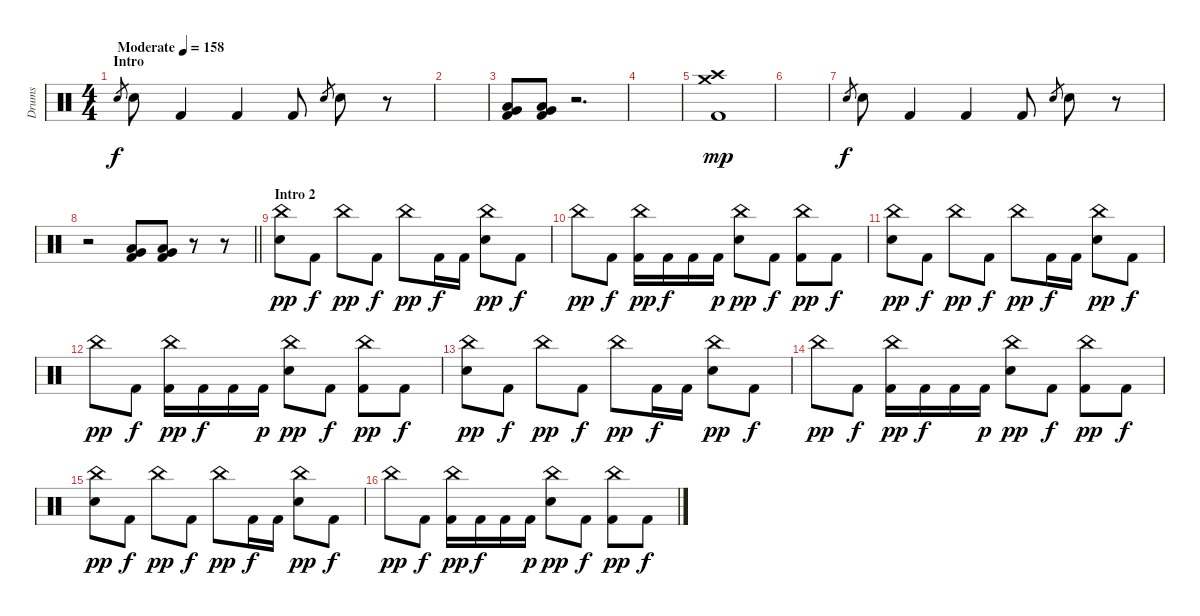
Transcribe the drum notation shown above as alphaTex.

\track ("Drums" "Drums") {instrument percussion}
\staff {score}
\articulation defaults
\ts (4 4)
\section ("" "Intro")
\tempo (158 "Moderate")
\clef neutral
\ks c "Snare (hit) 2".8{gr dy f} "Snare (hit) 2".8 "Kick (hit) 2".4 "Kick (hit) 2".4 "Kick (hit) 2".8 "Snare (hit) 2".8{gr} "Snare (hit) 2".8
r.8 |
|
("Very Low Tom (hit)" "Low Floor Tom (hit)" "Kick (hit) 2").8 ("Very Low Tom (hit)" "Low Floor Tom (hit)" "Kick (hit) 2").8 r.2{d} |
|
("Crash medium (hit)" "Crash high (hit)" "Kick (hit) 2").1{dy mp} |
|
"Snare (hit) 2".8{gr dy f} "Snare (hit) 2".8 "Kick (hit) 2".4 "Kick (hit) 2".4 "Kick (hit) 2".8 "Snare (hit) 2".8{gr} "Snare (hit) 2".8 r.8 |
\barLineRight lightlight
r.2 ("Very Low Tom (hit)" "Low Floor Tom (hit)" "Kick (hit) 2").8 ("Very Low Tom (hit)" "Low Floor Tom (hit)" "Kick (hit) 2").8 r.8 r.8 |
\section ("" "Intro 2")
("China (hit)" "Snare (hit) 2").8{dy pp} "Kick (hit) 2".8{dy f} "China (hit)".8{dy pp} "Kick (hit) 2".8{dy f} "China (hit)".8{dy pp} "Kick (hit) 2".16{dy f} "Kick (hit) 2".16 ("China (hit)" "Snare (hit) 2").8{dy pp} "Kick (hit) 2".8{dy f} |
"China (hit)".8{dy pp} "Kick (hit) 2".8{dy f} ("China (hit)" "Kick (hit) 2").16{dy pp} "Kick (hit) 2".16{dy f} "Kick (hit) 2".16 "Kick (hit) 2".16{dy p} ("China (hit)" "Snare (hit) 2").8{dy pp} "Kick (hit) 2".8{dy f} ("China (hit)" "Kick (hit) 2").8{dy pp} "Kick (hit) 2".8{dy f} |
("China (hit)" "Snare (hit) 2").8{dy pp} "Kick (hit) 2".8{dy f} "China (hit)".8{dy pp} "Kick (hit) 2".8{dy f} "China (hit)".8{dy pp} "Kick (hit) 2".16{dy f} "Kick (hit) 2".16 ("China (hit)" "Snare (hit) 2").8{dy pp} "Kick (hit) 2".8{dy f} |
"China (hit)".8{dy pp} "Kick (hit) 2".8{dy f} ("China (hit)" "Kick (hit) 2").16{dy pp} "Kick (hit) 2".16{dy f} "Kick (hit) 2".16 "Kick (hit) 2".16{dy p} ("China (hit)" "Snare (hit) 2").8{dy pp} "Kick (hit) 2".8{dy f} ("China (hit)" "Kick (hit) 2").8{dy pp} "Kick (hit) 2".8{dy f} |
("China (hit)" "Snare (hit) 2").8{dy pp} "Kick (hit) 2".8{dy f} "China (hit)".8{dy pp} "Kick (hit) 2".8{dy f} "China (hit)".8{dy pp} "Kick (hit) 2".16{dy f} "Kick (hit) 2".16 ("China (hit)" "Snare (hit) 2").8{dy pp} "Kick (hit) 2".8{dy f} |
"China (hit)".8{dy pp} "Kick (hit) 2".8{dy f} ("China (hit)" "Kick (hit) 2").16{dy pp} "Kick (hit) 2".16{dy f} "Kick (hit) 2".16 "Kick (hit) 2".16{dy p} ("China (hit)" "Snare (hit) 2").8{dy pp} "Kick (hit) 2".8{dy f} ("China (hit)" "Kick (hit) 2").8{dy pp} "Kick (hit) 2".8{dy f} |
("China (hit)" "Snare (hit) 2").8{dy pp} "Kick (hit) 2".8{dy f} "China (hit)".8{dy pp} "Kick (hit) 2".8{dy f} "China (hit)".8{dy pp} "Kick (hit) 2".16{dy f} "Kick (hit) 2".16 ("China (hit)" "Snare (hit) 2").8{dy pp} "Kick (hit) 2".8{dy f} |
"China (hit)".8{dy pp} "Kick (hit) 2".8{dy f} ("China (hit)" "Kick (hit) 2").16{dy pp} "Kick (hit) 2".16{dy f} "Kick (hit) 2".16 "Kick (hit) 2".16{dy p} ("China (hit)" "Snare (hit) 2").8{dy pp} "Kick (hit) 2".8{dy f} ("China (hit)" "Kick (hit) 2").8{dy pp} "Kick (hit) 2".8{dy f}
